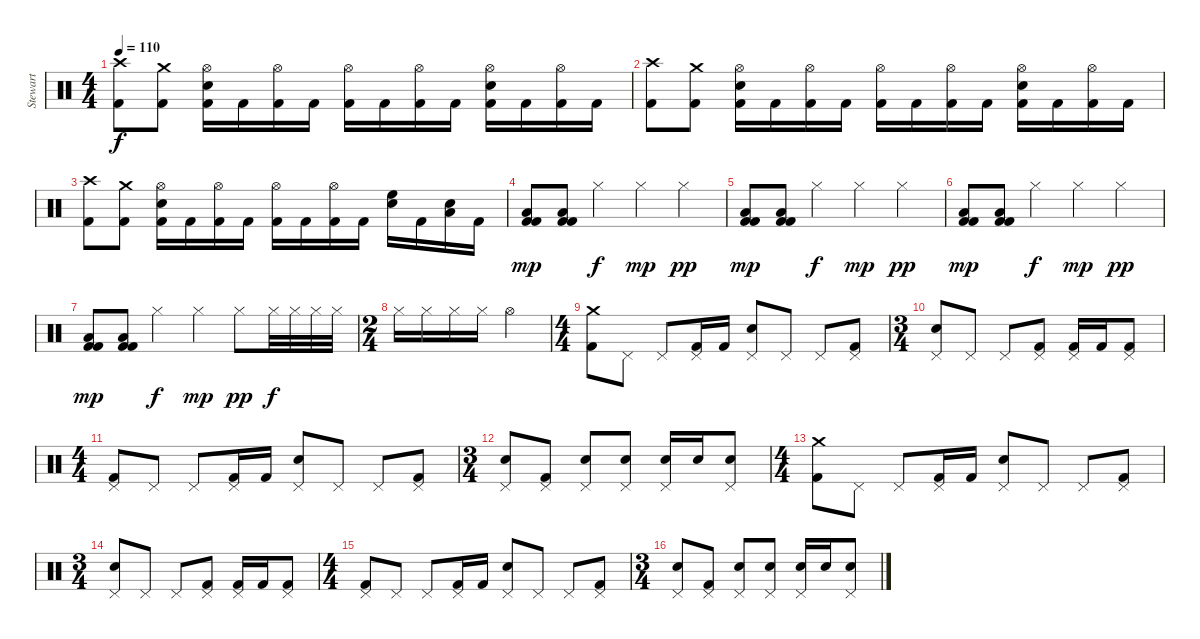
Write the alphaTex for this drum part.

\track ("Stewart" "Stewart") {instrument percussion}
\staff {score}
\articulation defaults
\ts (4 4)
\tempo 110
\clef neutral
\ks c
("Kick (hit) 2" "Crash high (hit)").8{dy f} ("Kick (hit) 2" "Crash medium (hit)").8 ("Kick (hit) 2" "Snare (hit) 2" "Hi-Hat (open)").16 "Kick (hit) 2".16 ("Kick (hit) 2" "Hi-Hat (open)").16 "Kick (hit) 2".16 ("Kick (hit) 2" "Hi-Hat (open)").16 "Kick (hit) 2".16 ("Kick (hit) 2" "Hi-Hat (open)").16 "Kick (hit) 2".16 ("Kick (hit) 2" "Snare (hit) 2" "Hi-Hat (open)").16 "Kick (hit) 2".16 ("Kick (hit) 2" "Hi-Hat (open)").16 "Kick (hit) 2".16 |
("Kick (hit) 2" "Crash high (hit)").8 ("Kick (hit) 2" "Crash medium (hit)").8 ("Kick (hit) 2" "Snare (hit) 2" "Hi-Hat (open)").16 "Kick (hit) 2".16 ("Kick (hit) 2" "Hi-Hat (open)").16 "Kick (hit) 2".16 ("Kick (hit) 2" "Hi-Hat (open)").16 "Kick (hit) 2".16 ("Kick (hit) 2" "Hi-Hat (open)").16 "Kick (hit) 2".16 ("Kick (hit) 2" "Snare (hit) 2" "Hi-Hat (open)").16 "Kick (hit) 2".16 ("Kick (hit) 2" "Hi-Hat (open)").16 "Kick (hit) 2".16 |
("Kick (hit) 2" "Crash high (hit)").8 ("Kick (hit) 2" "Crash medium (hit)").8 ("Kick (hit) 2" "Snare (hit) 2" "Hi-Hat (open)").16 "Kick (hit) 2".16 ("Kick (hit) 2" "Hi-Hat (open)").16 "Kick (hit) 2".16 ("Kick (hit) 2" "Hi-Hat (open)").16 "Kick (hit) 2".16 ("Kick (hit) 2" "Hi-Hat (open)").16 "Kick (hit) 2".16 ("High Floor Tom (hit)" "Snare (hit) 2").16 "Kick (hit) 2".16 ("Low Tom (hit)" "Snare (hit) 2").16 "Kick (hit) 2".16 |
("Kick (hit) 2" "Low Tom (hit)" "Kick (hit) 2").8{dy mp} ("Kick (hit) 2" "Low Floor Tom (hit)" "Kick (hit) 2").8 "Hi-Hat (closed)".4{dy f} "Hi-Hat (closed)".4{dy mp} "Hi-Hat (closed)".4{dy pp} |
("Kick (hit) 2" "Low Tom (hit)" "Kick (hit) 2").8{dy mp} ("Kick (hit) 2" "Low Floor Tom (hit)" "Kick (hit) 2").8 "Hi-Hat (closed)".4{dy f} "Hi-Hat (closed)".4{dy mp} "Hi-Hat (closed)".4{dy pp} |
("Kick (hit) 2" "Low Tom (hit)" "Kick (hit) 2").8{dy mp} ("Kick (hit) 2" "Low Floor Tom (hit)" "Kick (hit) 2").8 "Hi-Hat (closed)".4{dy f} "Hi-Hat (closed)".4{dy mp} "Hi-Hat (closed)".4{dy pp} |
("Kick (hit) 2" "Low Tom (hit)" "Kick (hit) 2").8{dy mp} ("Kick (hit) 2" "Low Floor Tom (hit)" "Kick (hit) 2").8 "Hi-Hat (closed)".4{dy f} "Hi-Hat (closed)".4{dy mp} "Hi-Hat (closed)".8{dy pp} "Hi-Hat (closed)".32{dy f} "Hi-Hat (closed)".32 "Hi-Hat (closed)".32 "Hi-Hat (closed)".32 |
\ts (2 4)
"Hi-Hat (closed)".16 "Hi-Hat (closed)".16 "Hi-Hat (closed)".16 "Hi-Hat (closed)".16 "Hi-Hat (open)".4 |
\ts (4 4)
("Crash medium (hit)" "Kick (hit) 2").8 "Pedal Hi-Hat (hit)".8 "Pedal Hi-Hat (hit)".8 ("Pedal Hi-Hat (hit)" "Kick (hit) 2").16 "Kick (hit) 2".16 ("Pedal Hi-Hat (hit)" "Electric Snare (hit)").8 "Pedal Hi-Hat (hit)".8 "Pedal Hi-Hat (hit)".8 ("Pedal Hi-Hat (hit)" "Kick (hit) 2").8 |
\ts (3 4)
("Pedal Hi-Hat (hit)" "Electric Snare (hit)").8 "Pedal Hi-Hat (hit)".8 "Pedal Hi-Hat (hit)".8 ("Pedal Hi-Hat (hit)" "Kick (hit) 2").8 ("Pedal Hi-Hat (hit)" "Kick (hit) 2").16 "Kick (hit) 2".16 ("Pedal Hi-Hat (hit)" "Kick (hit) 2").8 |
\ts (4 4)
("Pedal Hi-Hat (hit)" "Kick (hit) 2").8 "Pedal Hi-Hat (hit)".8 "Pedal Hi-Hat (hit)".8 ("Pedal Hi-Hat (hit)" "Kick (hit) 2").16 "Kick (hit) 2".16 ("Pedal Hi-Hat (hit)" "Electric Snare (hit)").8 "Pedal Hi-Hat (hit)".8 "Pedal Hi-Hat (hit)".8 ("Pedal Hi-Hat (hit)" "Kick (hit) 2").8 |
\ts (3 4)
("Pedal Hi-Hat (hit)" "Electric Snare (hit)").8 ("Pedal Hi-Hat (hit)" "Kick (hit) 2").8 ("Pedal Hi-Hat (hit)" "Electric Snare (hit)").8 ("Pedal Hi-Hat (hit)" "Electric Snare (hit)").8 ("Pedal Hi-Hat (hit)" "Electric Snare (hit)").16 "Electric Snare (hit)".16 ("Pedal Hi-Hat (hit)" "Electric Snare (hit)").8 |
\ts (4 4)
("Crash medium (hit)" "Kick (hit) 2").8 "Pedal Hi-Hat (hit)".8 "Pedal Hi-Hat (hit)".8 ("Pedal Hi-Hat (hit)" "Kick (hit) 2").16 "Kick (hit) 2".16 ("Pedal Hi-Hat (hit)" "Electric Snare (hit)").8 "Pedal Hi-Hat (hit)".8 "Pedal Hi-Hat (hit)".8 ("Pedal Hi-Hat (hit)" "Kick (hit) 2").8 |
\ts (3 4)
("Pedal Hi-Hat (hit)" "Electric Snare (hit)").8 "Pedal Hi-Hat (hit)".8 "Pedal Hi-Hat (hit)".8 ("Pedal Hi-Hat (hit)" "Kick (hit) 2").8 ("Pedal Hi-Hat (hit)" "Kick (hit) 2").16 "Kick (hit) 2".16 ("Pedal Hi-Hat (hit)" "Kick (hit) 2").8 |
\ts (4 4)
("Pedal Hi-Hat (hit)" "Kick (hit) 2").8 "Pedal Hi-Hat (hit)".8 "Pedal Hi-Hat (hit)".8 ("Pedal Hi-Hat (hit)" "Kick (hit) 2").16 "Kick (hit) 2".16 ("Pedal Hi-Hat (hit)" "Electric Snare (hit)").8 "Pedal Hi-Hat (hit)".8 "Pedal Hi-Hat (hit)".8 ("Pedal Hi-Hat (hit)" "Kick (hit) 2").8 |
\ts (3 4)
("Pedal Hi-Hat (hit)" "Electric Snare (hit)").8 ("Pedal Hi-Hat (hit)" "Kick (hit) 2").8 ("Pedal Hi-Hat (hit)" "Electric Snare (hit)").8 ("Pedal Hi-Hat (hit)" "Electric Snare (hit)").8 ("Pedal Hi-Hat (hit)" "Electric Snare (hit)").16 "Electric Snare (hit)".16 ("Pedal Hi-Hat (hit)" "Electric Snare (hit)").8
